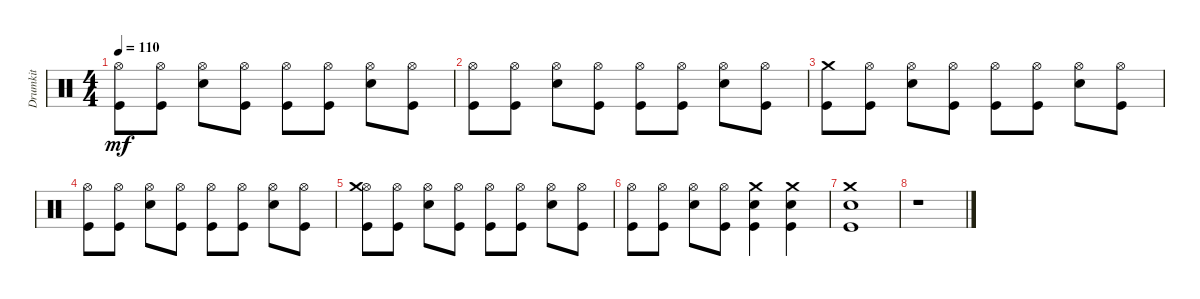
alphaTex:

\track ("Drumkit" "Drumkit") {instrument percussion}
\staff {score}
\articulation defaults
\ts (4 4)
\tempo 110
\clef neutral
\ks c
("Kick (hit)" "Hi-Hat (open)").8{dy mf} ("Kick (hit)" "Hi-Hat (open)").8 ("Hi-Hat (open)" "Snare (hit) 2").8 ("Kick (hit)" "Hi-Hat (open)").8 ("Kick (hit)" "Hi-Hat (open)").8 ("Kick (hit)" "Hi-Hat (open)").8 ("Hi-Hat (open)" "Snare (hit) 2").8 ("Kick (hit)" "Hi-Hat (open)").8 |
("Kick (hit)" "Hi-Hat (open)").8 ("Kick (hit)" "Hi-Hat (open)").8 ("Hi-Hat (open)" "Snare (hit) 2").8 ("Kick (hit)" "Hi-Hat (open)").8 ("Kick (hit)" "Hi-Hat (open)").8 ("Kick (hit)" "Hi-Hat (open)").8 ("Hi-Hat (open)" "Snare (hit) 2").8 ("Kick (hit)" "Hi-Hat (open)").8 |
("Kick (hit)" "Crash medium (hit)").8 ("Kick (hit)" "Hi-Hat (open)").8 ("Hi-Hat (open)" "Snare (hit) 2").8 ("Kick (hit)" "Hi-Hat (open)").8 ("Kick (hit)" "Hi-Hat (open)").8 ("Kick (hit)" "Hi-Hat (open)").8 ("Hi-Hat (open)" "Snare (hit) 2").8 ("Kick (hit)" "Hi-Hat (open)").8 |
("Kick (hit)" "Hi-Hat (open)").8 ("Kick (hit)" "Hi-Hat (open)").8 ("Hi-Hat (open)" "Snare (hit) 2").8 ("Kick (hit)" "Hi-Hat (open)").8 ("Kick (hit)" "Hi-Hat (open)").8 ("Kick (hit)" "Hi-Hat (open)").8 ("Hi-Hat (open)" "Snare (hit) 2").8 ("Kick (hit)" "Hi-Hat (open)").8 |
("Kick (hit)" "Hi-Hat (open)" "Crash medium (hit)").8 ("Kick (hit)" "Hi-Hat (open)").8 ("Hi-Hat (open)" "Snare (hit) 2").8 ("Kick (hit)" "Hi-Hat (open)").8 ("Kick (hit)" "Hi-Hat (open)").8 ("Kick (hit)" "Hi-Hat (open)").8 ("Hi-Hat (open)" "Snare (hit) 2").8 ("Kick (hit)" "Hi-Hat (open)").8 |
("Hi-Hat (open)" "Kick (hit)").8 ("Hi-Hat (open)" "Kick (hit)").8 ("Hi-Hat (open)" "Snare (hit) 2").8 ("Hi-Hat (open)" "Kick (hit)").8 ("Crash medium (hit)" "Snare (hit) 2" "Kick (hit)").4 ("Crash medium (hit)" "Snare (hit) 2" "Kick (hit)").4 |
("Crash medium (hit)" "Snare (hit) 2" "Kick (hit)").1 |
r.1
